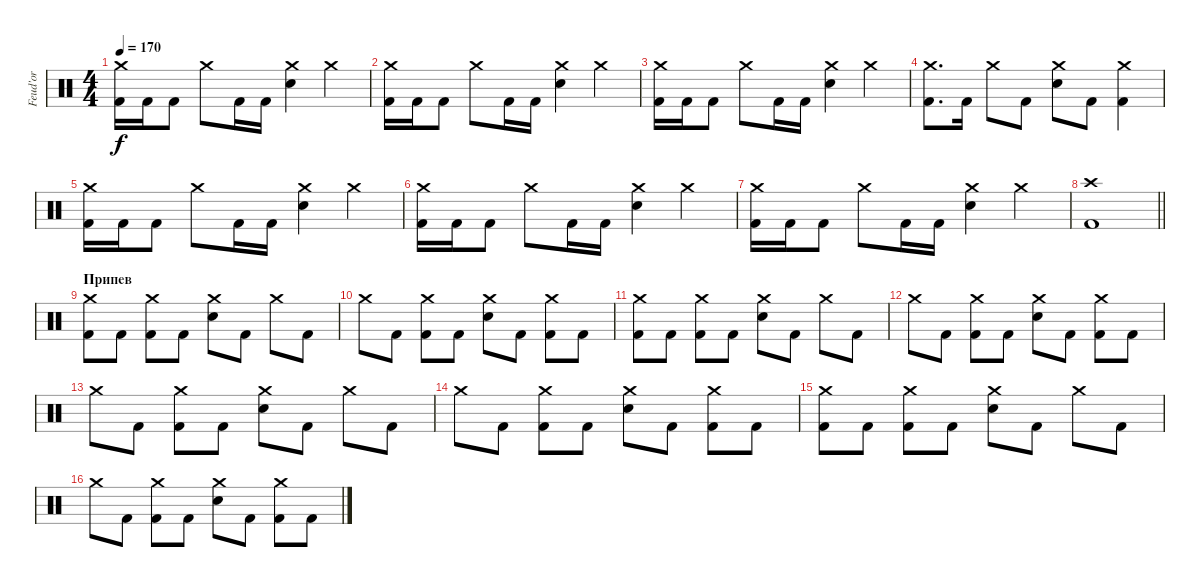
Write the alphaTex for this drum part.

\track ("Feud'or" "Feud'or") {instrument percussion}
\staff {score}
\articulation defaults
\ts (4 4)
\tempo 170
\clef neutral
\ks c
("Crash medium (hit)" "Kick (hit) 2").16{dy f} "Kick (hit) 2".16 "Kick (hit) 2".8 "Crash medium (hit)".8 "Kick (hit) 2".16 "Kick (hit) 2".16 ("Crash medium (hit)" "Electric Snare (hit)").4 "Crash medium (hit)".4 |
("Crash medium (hit)" "Kick (hit) 2").16 "Kick (hit) 2".16 "Kick (hit) 2".8 "Crash medium (hit)".8 "Kick (hit) 2".16 "Kick (hit) 2".16 ("Crash medium (hit)" "Electric Snare (hit)").4 "Crash medium (hit)".4 |
("Crash medium (hit)" "Kick (hit) 2").16 "Kick (hit) 2".16 "Kick (hit) 2".8 "Crash medium (hit)".8 "Kick (hit) 2".16 "Kick (hit) 2".16 ("Crash medium (hit)" "Electric Snare (hit)").4 "Crash medium (hit)".4 |
("Crash medium (hit)" "Kick (hit) 2").8{d} "Kick (hit) 2".16 "Crash medium (hit)".8 "Kick (hit) 2".8 ("Crash medium (hit)" "Electric Snare (hit)").8 "Kick (hit) 2".8 ("Crash medium (hit)" "Kick (hit) 2").4 |
("Crash medium (hit)" "Kick (hit) 2").16 "Kick (hit) 2".16 "Kick (hit) 2".8 "Crash medium (hit)".8 "Kick (hit) 2".16 "Kick (hit) 2".16 ("Crash medium (hit)" "Electric Snare (hit)").4 "Crash medium (hit)".4 |
("Crash medium (hit)" "Kick (hit) 2").16 "Kick (hit) 2".16 "Kick (hit) 2".8 "Crash medium (hit)".8 "Kick (hit) 2".16 "Kick (hit) 2".16 ("Crash medium (hit)" "Electric Snare (hit)").4 "Crash medium (hit)".4 |
("Crash medium (hit)" "Kick (hit) 2").16 "Kick (hit) 2".16 "Kick (hit) 2".8 "Crash medium (hit)".8 "Kick (hit) 2".16 "Kick (hit) 2".16 ("Crash medium (hit)" "Electric Snare (hit)").4 "Crash medium (hit)".4 |
\barLineRight lightlight
("Crash high (hit)" "Kick (hit) 2").1 |
\section ("" "Припев")
("Crash medium (hit)" "Kick (hit) 2").8 "Kick (hit) 2".8 ("Crash medium (hit)" "Kick (hit) 2").8 "Kick (hit) 2".8 ("Crash medium (hit)" "Electric Snare (hit)").8 "Kick (hit) 2".8 "Crash medium (hit)".8 "Kick (hit) 2".8 |
"Crash medium (hit)".8 "Kick (hit) 2".8 ("Crash medium (hit)" "Kick (hit) 2").8 "Kick (hit) 2".8 ("Crash medium (hit)" "Electric Snare (hit)").8 "Kick (hit) 2".8 ("Crash medium (hit)" "Kick (hit) 2").8 "Kick (hit) 2".8 |
("Crash medium (hit)" "Kick (hit) 2").8 "Kick (hit) 2".8 ("Crash medium (hit)" "Kick (hit) 2").8 "Kick (hit) 2".8 ("Crash medium (hit)" "Electric Snare (hit)").8 "Kick (hit) 2".8 "Crash medium (hit)".8 "Kick (hit) 2".8 |
"Crash medium (hit)".8 "Kick (hit) 2".8 ("Crash medium (hit)" "Kick (hit) 2").8 "Kick (hit) 2".8 ("Crash medium (hit)" "Electric Snare (hit)").8 "Kick (hit) 2".8 ("Crash medium (hit)" "Kick (hit) 2").8 "Kick (hit) 2".8 |
"Crash medium (hit)".8 "Kick (hit) 2".8 ("Crash medium (hit)" "Kick (hit) 2").8 "Kick (hit) 2".8 ("Crash medium (hit)" "Electric Snare (hit)").8 "Kick (hit) 2".8 "Crash medium (hit)".8 "Kick (hit) 2".8 |
"Crash medium (hit)".8 "Kick (hit) 2".8 ("Crash medium (hit)" "Kick (hit) 2").8 "Kick (hit) 2".8 ("Crash medium (hit)" "Electric Snare (hit)").8 "Kick (hit) 2".8 ("Crash medium (hit)" "Kick (hit) 2").8 "Kick (hit) 2".8 |
("Crash medium (hit)" "Kick (hit) 2").8 "Kick (hit) 2".8 ("Crash medium (hit)" "Kick (hit) 2").8 "Kick (hit) 2".8 ("Crash medium (hit)" "Electric Snare (hit)").8 "Kick (hit) 2".8 "Crash medium (hit)".8 "Kick (hit) 2".8 |
"Crash medium (hit)".8 "Kick (hit) 2".8 ("Crash medium (hit)" "Kick (hit) 2").8 "Kick (hit) 2".8 ("Crash medium (hit)" "Electric Snare (hit)").8 "Kick (hit) 2".8 ("Crash medium (hit)" "Kick (hit) 2").8 "Kick (hit) 2".8
